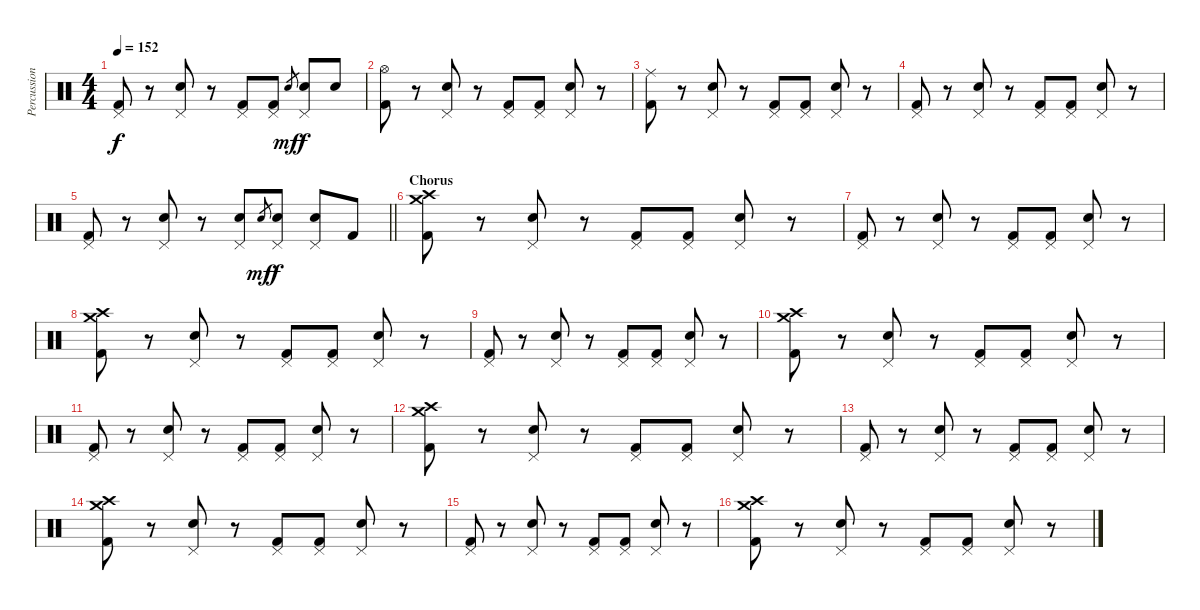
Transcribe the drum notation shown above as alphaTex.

\track ("Percussion" "Percussion") {instrument percussion}
\staff {score}
\articulation defaults
\ts (4 4)
\tempo 152
\clef neutral
\ks c
("Kick (hit) 2" "Pedal Hi-Hat (hit)").8{dy f} r.8 ("Snare (hit) 2" "Pedal Hi-Hat (hit)").8 r.8 ("Kick (hit) 2" "Pedal Hi-Hat (hit)").8 ("Kick (hit) 2" "Pedal Hi-Hat (hit)").8 "Snare (hit) 2".8{gr dy mf} ("Snare (hit) 2" "Pedal Hi-Hat (hit)").8{dy f} "Snare (hit) 2".8 |
("Kick (hit) 2" "Hi-Hat (open)").8 r.8 ("Snare (hit) 2" "Pedal Hi-Hat (hit)").8 r.8 ("Kick (hit) 2" "Pedal Hi-Hat (hit)").8 ("Kick (hit) 2" "Pedal Hi-Hat (hit)").8 ("Snare (hit) 2" "Pedal Hi-Hat (hit)").8 r.8 |
("Kick (hit) 2" "Ride (middle)").8 r.8 ("Snare (hit) 2" "Pedal Hi-Hat (hit)").8 r.8 ("Kick (hit) 2" "Pedal Hi-Hat (hit)").8 ("Kick (hit) 2" "Pedal Hi-Hat (hit)").8 ("Snare (hit) 2" "Pedal Hi-Hat (hit)").8 r.8 |
("Kick (hit) 2" "Pedal Hi-Hat (hit)").8 r.8 ("Snare (hit) 2" "Pedal Hi-Hat (hit)").8 r.8 ("Kick (hit) 2" "Pedal Hi-Hat (hit)").8 ("Kick (hit) 2" "Pedal Hi-Hat (hit)").8 ("Snare (hit) 2" "Pedal Hi-Hat (hit)").8 r.8 |
\barLineRight lightlight
("Kick (hit) 2" "Pedal Hi-Hat (hit)").8 r.8 ("Snare (hit) 2" "Pedal Hi-Hat (hit)").8 r.8 ("Snare (hit) 2" "Pedal Hi-Hat (hit)").8 "Snare (hit) 2".8{gr dy mf} ("Snare (hit) 2" "Pedal Hi-Hat (hit)").8{dy f} ("Snare (hit) 2" "Pedal Hi-Hat (hit)").8 "Kick (hit) 2".8 |
\section ("" "Chorus")
("Kick (hit) 2" "Crash high (hit)" "Crash medium (hit)").8 r.8 ("Snare (hit) 2" "Pedal Hi-Hat (hit)").8 r.8 ("Kick (hit) 2" "Pedal Hi-Hat (hit)").8 ("Kick (hit) 2" "Pedal Hi-Hat (hit)").8 ("Snare (hit) 2" "Pedal Hi-Hat (hit)").8 r.8 |
("Kick (hit) 2" "Pedal Hi-Hat (hit)").8 r.8 ("Snare (hit) 2" "Pedal Hi-Hat (hit)").8 r.8 ("Kick (hit) 2" "Pedal Hi-Hat (hit)").8 ("Kick (hit) 2" "Pedal Hi-Hat (hit)").8 ("Snare (hit) 2" "Pedal Hi-Hat (hit)").8 r.8 |
("Kick (hit) 2" "Crash high (hit)" "Crash medium (hit)").8 r.8 ("Snare (hit) 2" "Pedal Hi-Hat (hit)").8 r.8 ("Kick (hit) 2" "Pedal Hi-Hat (hit)").8 ("Kick (hit) 2" "Pedal Hi-Hat (hit)").8 ("Snare (hit) 2" "Pedal Hi-Hat (hit)").8 r.8 |
("Kick (hit) 2" "Pedal Hi-Hat (hit)").8 r.8 ("Snare (hit) 2" "Pedal Hi-Hat (hit)").8 r.8 ("Kick (hit) 2" "Pedal Hi-Hat (hit)").8 ("Kick (hit) 2" "Pedal Hi-Hat (hit)").8 ("Snare (hit) 2" "Pedal Hi-Hat (hit)").8 r.8 |
("Kick (hit) 2" "Crash high (hit)" "Crash medium (hit)").8 r.8 ("Snare (hit) 2" "Pedal Hi-Hat (hit)").8 r.8 ("Kick (hit) 2" "Pedal Hi-Hat (hit)").8 ("Kick (hit) 2" "Pedal Hi-Hat (hit)").8 ("Snare (hit) 2" "Pedal Hi-Hat (hit)").8 r.8 |
("Kick (hit) 2" "Pedal Hi-Hat (hit)").8 r.8 ("Snare (hit) 2" "Pedal Hi-Hat (hit)").8 r.8 ("Kick (hit) 2" "Pedal Hi-Hat (hit)").8 ("Kick (hit) 2" "Pedal Hi-Hat (hit)").8 ("Snare (hit) 2" "Pedal Hi-Hat (hit)").8 r.8 |
("Kick (hit) 2" "Crash high (hit)" "Crash medium (hit)").8 r.8 ("Snare (hit) 2" "Pedal Hi-Hat (hit)").8 r.8 ("Kick (hit) 2" "Pedal Hi-Hat (hit)").8 ("Kick (hit) 2" "Pedal Hi-Hat (hit)").8 ("Snare (hit) 2" "Pedal Hi-Hat (hit)").8 r.8 |
("Kick (hit) 2" "Pedal Hi-Hat (hit)").8 r.8 ("Snare (hit) 2" "Pedal Hi-Hat (hit)").8 r.8 ("Kick (hit) 2" "Pedal Hi-Hat (hit)").8 ("Kick (hit) 2" "Pedal Hi-Hat (hit)").8 ("Snare (hit) 2" "Pedal Hi-Hat (hit)").8 r.8 |
("Kick (hit) 2" "Crash high (hit)" "Crash medium (hit)").8 r.8 ("Snare (hit) 2" "Pedal Hi-Hat (hit)").8 r.8 ("Kick (hit) 2" "Pedal Hi-Hat (hit)").8 ("Kick (hit) 2" "Pedal Hi-Hat (hit)").8 ("Snare (hit) 2" "Pedal Hi-Hat (hit)").8 r.8 |
("Kick (hit) 2" "Pedal Hi-Hat (hit)").8 r.8 ("Snare (hit) 2" "Pedal Hi-Hat (hit)").8 r.8 ("Kick (hit) 2" "Pedal Hi-Hat (hit)").8 ("Kick (hit) 2" "Pedal Hi-Hat (hit)").8 ("Snare (hit) 2" "Pedal Hi-Hat (hit)").8 r.8 |
("Kick (hit) 2" "Crash high (hit)" "Crash medium (hit)").8 r.8 ("Snare (hit) 2" "Pedal Hi-Hat (hit)").8 r.8 ("Kick (hit) 2" "Pedal Hi-Hat (hit)").8 ("Kick (hit) 2" "Pedal Hi-Hat (hit)").8 ("Snare (hit) 2" "Pedal Hi-Hat (hit)").8 r.8
